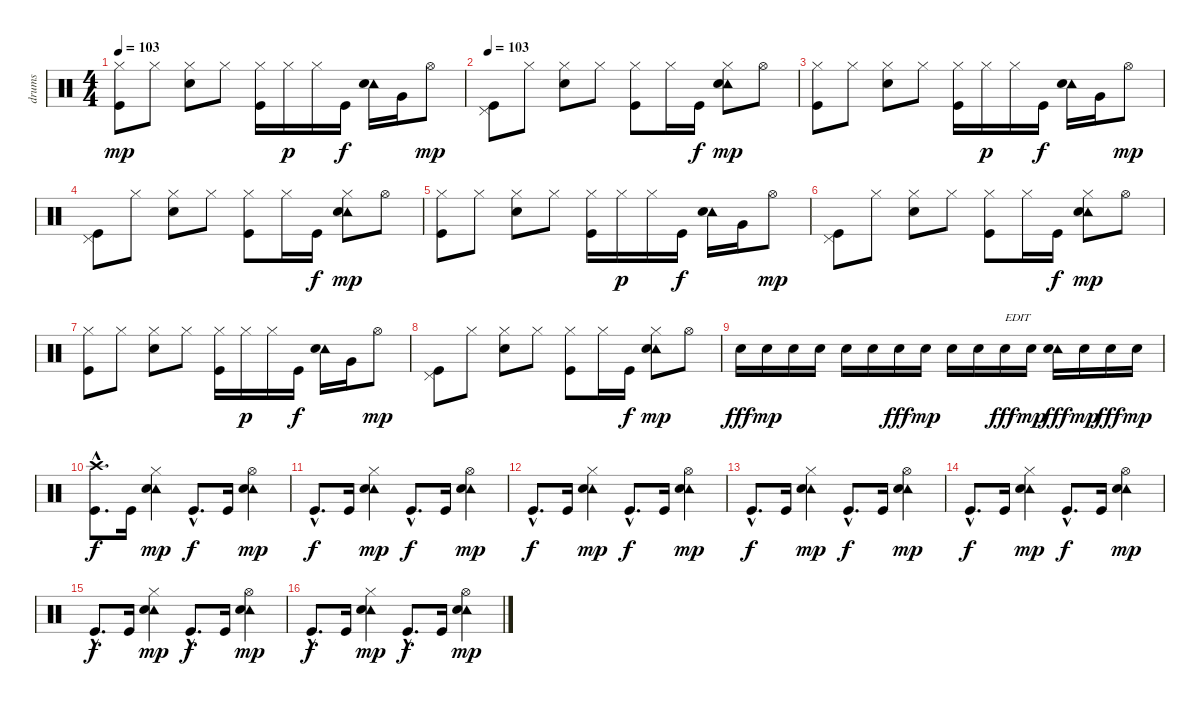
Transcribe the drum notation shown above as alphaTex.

\track ("drums" "drums") {instrument percussion}
\staff {score}
\articulation defaults
\ts (4 4)
\tempo 103
\clef neutral
\ks c
("Hi-Hat (closed)" "Kick (hit)").8{dy mp} "Hi-Hat (closed)".8 ("Hi-Hat (closed)" "Electric Snare (hit)").8 "Hi-Hat (closed)".8 ("Hi-Hat (closed)" "Kick (hit)").16 "Hi-Hat (closed)".16{dy p} "Hi-Hat (closed)".16 "Kick (hit)".16{dy f} ("Tambourine (hit)" "Electric Snare (hit)").16 "Very Low Tom (hit)".16 "Hi-Hat (open)".8{dy mp} |
\tempo 103
("Pedal Hi-Hat (hit)" "Kick (hit)").8 "Hi-Hat (closed)".8 ("Hi-Hat (closed)" "Electric Snare (hit)").8 "Hi-Hat (closed)".8 ("Hi-Hat (closed)" "Kick (hit)").8 "Hi-Hat (closed)".16 "Kick (hit)".16{dy f} ("Tambourine (hit)" "Hi-Hat (closed)" "Electric Snare (hit)").8{dy mp} "Hi-Hat (open)".8 |
("Hi-Hat (closed)" "Kick (hit)").8 "Hi-Hat (closed)".8 ("Hi-Hat (closed)" "Electric Snare (hit)").8 "Hi-Hat (closed)".8 ("Hi-Hat (closed)" "Kick (hit)").16 "Hi-Hat (closed)".16{dy p} "Hi-Hat (closed)".16 "Kick (hit)".16{dy f} ("Tambourine (hit)" "Electric Snare (hit)").16 "Very Low Tom (hit)".16 "Hi-Hat (open)".8{dy mp} |
("Pedal Hi-Hat (hit)" "Kick (hit)").8 "Hi-Hat (closed)".8 ("Hi-Hat (closed)" "Electric Snare (hit)").8 "Hi-Hat (closed)".8 ("Hi-Hat (closed)" "Kick (hit)").8 "Hi-Hat (closed)".16 "Kick (hit)".16{dy f} ("Tambourine (hit)" "Hi-Hat (closed)" "Electric Snare (hit)").8{dy mp} "Hi-Hat (open)".8 |
("Hi-Hat (closed)" "Kick (hit)").8 "Hi-Hat (closed)".8 ("Hi-Hat (closed)" "Electric Snare (hit)").8 "Hi-Hat (closed)".8 ("Hi-Hat (closed)" "Kick (hit)").16 "Hi-Hat (closed)".16{dy p} "Hi-Hat (closed)".16 "Kick (hit)".16{dy f} ("Tambourine (hit)" "Electric Snare (hit)").16 "Very Low Tom (hit)".16 "Hi-Hat (open)".8{dy mp} |
("Pedal Hi-Hat (hit)" "Kick (hit)").8 "Hi-Hat (closed)".8 ("Hi-Hat (closed)" "Electric Snare (hit)").8 "Hi-Hat (closed)".8 ("Hi-Hat (closed)" "Kick (hit)").8 "Hi-Hat (closed)".16 "Kick (hit)".16{dy f} ("Tambourine (hit)" "Hi-Hat (closed)" "Electric Snare (hit)").8{dy mp} "Hi-Hat (open)".8 |
("Hi-Hat (closed)" "Kick (hit)").8 "Hi-Hat (closed)".8 ("Hi-Hat (closed)" "Electric Snare (hit)").8 "Hi-Hat (closed)".8 ("Hi-Hat (closed)" "Kick (hit)").16 "Hi-Hat (closed)".16{dy p} "Hi-Hat (closed)".16 "Kick (hit)".16{dy f} ("Tambourine (hit)" "Electric Snare (hit)").16 "Very Low Tom (hit)".16 "Hi-Hat (open)".8{dy mp} |
("Pedal Hi-Hat (hit)" "Kick (hit)").8 "Hi-Hat (closed)".8 ("Hi-Hat (closed)" "Electric Snare (hit)").8 "Hi-Hat (closed)".8 ("Hi-Hat (closed)" "Kick (hit)").8 "Hi-Hat (closed)".16 "Kick (hit)".16{dy f} ("Tambourine (hit)" "Hi-Hat (closed)" "Electric Snare (hit)").8{dy mp} "Hi-Hat (open)".8 |
"Electric Snare (hit)".16{dy fff} "Electric Snare (hit)".16{dy mp} "Electric Snare (hit)".16 "Electric Snare (hit)".16 "Electric Snare (hit)".16 "Electric Snare (hit)".16 "Electric Snare (hit)".16{dy fff} "Electric Snare (hit)".16{dy mp} "Electric Snare (hit)".16 "Electric Snare (hit)".16 "Electric Snare (hit)".16{txt "EDIT" dy fff} "Electric Snare (hit)".16{dy mp} ("Tambourine (hit)" "Electric Snare (hit)").16{dy fff} "Electric Snare (hit)".16{dy mp} "Electric Snare (hit)".16{dy fff} "Electric Snare (hit)".16{dy mp} |
("Crash high (hit)"{hac} "Kick (hit)"{hac}).8{d dy f} "Kick (hit)".16 ("Tambourine (hit)" "Hi-Hat (closed)" "Electric Snare (hit)").4{dy mp} "Kick (hit)"{hac}.8{d dy f} "Kick (hit)".16 ("Tambourine (hit)" "Hi-Hat (open)" "Electric Snare (hit)").4{dy mp} |
"Kick (hit)"{hac}.8{d dy f} "Kick (hit)".16 ("Tambourine (hit)" "Hi-Hat (closed)" "Electric Snare (hit)").4{dy mp} "Kick (hit)"{hac}.8{d dy f} "Kick (hit)".16 ("Tambourine (hit)" "Hi-Hat (open)" "Electric Snare (hit)").4{dy mp} |
"Kick (hit)"{hac}.8{d dy f} "Kick (hit)".16 ("Tambourine (hit)" "Hi-Hat (closed)" "Electric Snare (hit)").4{dy mp} "Kick (hit)"{hac}.8{d dy f} "Kick (hit)".16 ("Tambourine (hit)" "Hi-Hat (open)" "Electric Snare (hit)").4{dy mp} |
"Kick (hit)"{hac}.8{d dy f} "Kick (hit)".16 ("Tambourine (hit)" "Hi-Hat (closed)" "Electric Snare (hit)").4{dy mp} "Kick (hit)"{hac}.8{d dy f} "Kick (hit)".16 ("Tambourine (hit)" "Hi-Hat (open)" "Electric Snare (hit)").4{dy mp} |
"Kick (hit)"{hac}.8{d dy f} "Kick (hit)".16 ("Tambourine (hit)" "Hi-Hat (closed)" "Electric Snare (hit)").4{dy mp} "Kick (hit)"{hac}.8{d dy f} "Kick (hit)".16 ("Tambourine (hit)" "Hi-Hat (open)" "Electric Snare (hit)").4{dy mp} |
"Kick (hit)"{hac}.8{d dy f} "Kick (hit)".16 ("Tambourine (hit)" "Hi-Hat (closed)" "Electric Snare (hit)").4{dy mp} "Kick (hit)"{hac}.8{d dy f} "Kick (hit)".16 ("Tambourine (hit)" "Hi-Hat (open)" "Electric Snare (hit)").4{dy mp} |
"Kick (hit)"{hac}.8{d dy f} "Kick (hit)".16 ("Tambourine (hit)" "Hi-Hat (closed)" "Electric Snare (hit)").4{dy mp} "Kick (hit)"{hac}.8{d dy f} "Kick (hit)".16 ("Tambourine (hit)" "Hi-Hat (open)" "Electric Snare (hit)").4{dy mp}
